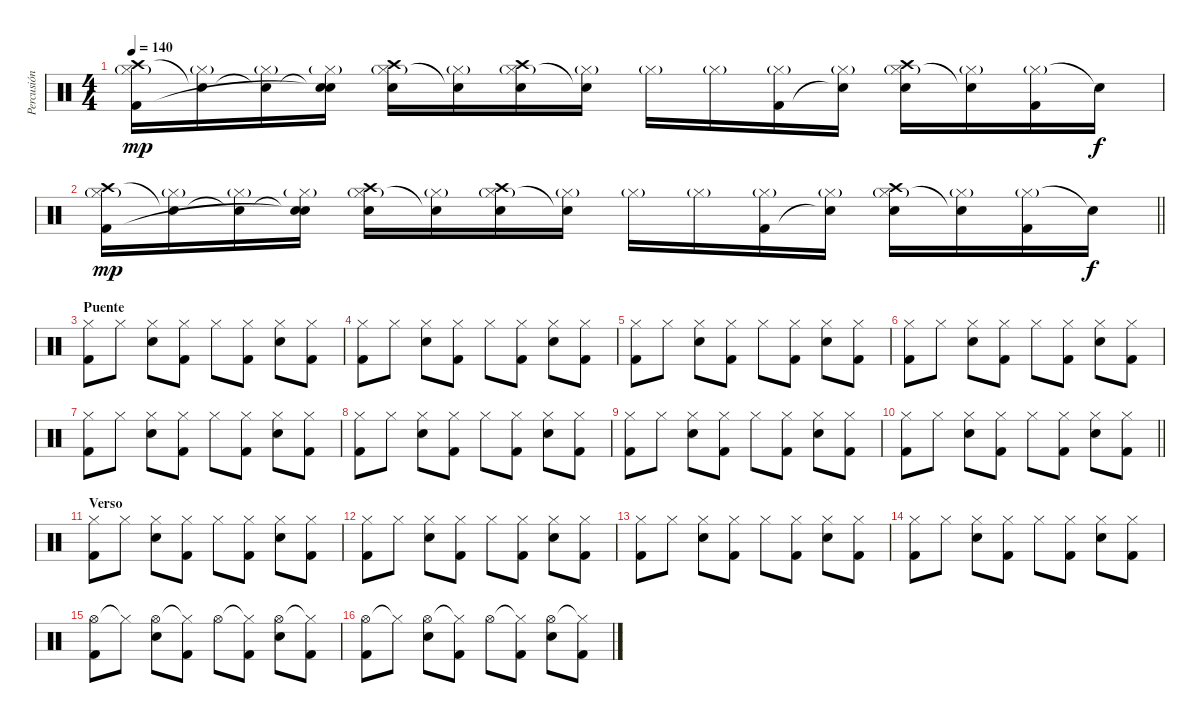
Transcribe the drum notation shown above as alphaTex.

\track ("Percusión" "Percusión") {instrument percussion}
\staff {score}
\articulation defaults
\ts (4 4)
\tempo 140
\clef neutral
\ks c
("Crash high (hit)" "Hi-Hat (closed)"{g} "Kick (hit) 2").16{dy mp} ("Snare (hit)"{t} "Hi-Hat (closed)"{g}).16 ("Snare (hit)"{t} "Hi-Hat (closed)"{g}).16 ("Snare (hit)"{t} "Hi-Hat (closed)"{g} "Snare (hit)"{t}).16 ("Crash high (hit)" "Hi-Hat (closed)"{g} "Electric Snare (hit)").16 ("Hi-Hat (closed)"{g} "Snare (hit)"{t}).16 ("Crash high (hit)" "Hi-Hat (closed)"{g} "Electric Snare (hit)").16 ("Hi-Hat (closed)"{g} "Snare (hit)"{t}).16 "Hi-Hat (closed)"{g}.16 "Hi-Hat (closed)"{g}.16 ("Hi-Hat (closed)"{g} "Kick (hit) 2").16 ("Hi-Hat (closed)"{g} "Snare (hit)"{t}).16 ("Crash high (hit)" "Hi-Hat (closed)"{g} "Electric Snare (hit)").16 ("Hi-Hat (closed)"{g} "Snare (hit)"{t}).16 ("Hi-Hat (closed)"{g} "Kick (hit) 2").16 "Snare (hit)"{t}.16{dy f} |
\barLineRight lightlight
("Crash high (hit)" "Hi-Hat (closed)"{g} "Kick (hit) 2").16{dy mp} ("Snare (hit)"{t} "Hi-Hat (closed)"{g}).16 ("Snare (hit)"{t} "Hi-Hat (closed)"{g}).16 ("Snare (hit)"{t} "Hi-Hat (closed)"{g} "Snare (hit)"{t}).16 ("Crash high (hit)" "Hi-Hat (closed)"{g} "Electric Snare (hit)").16 ("Hi-Hat (closed)"{g} "Snare (hit)"{t}).16 ("Crash high (hit)" "Hi-Hat (closed)"{g} "Electric Snare (hit)").16 ("Hi-Hat (closed)"{g} "Snare (hit)"{t}).16 "Hi-Hat (closed)"{g}.16 "Hi-Hat (closed)"{g}.16 ("Hi-Hat (closed)"{g} "Kick (hit) 2").16 ("Hi-Hat (closed)"{g} "Snare (hit)"{t}).16 ("Crash high (hit)" "Hi-Hat (closed)"{g} "Electric Snare (hit)").16 ("Hi-Hat (closed)"{g} "Snare (hit)"{t}).16 ("Hi-Hat (closed)"{g} "Kick (hit) 2").16 "Snare (hit)"{t}.16{dy f} |
\section ("" "Puente")
("Hi-Hat (closed)" "Kick (hit) 2").8 "Hi-Hat (closed)".8 ("Hi-Hat (closed)" "Electric Snare (hit)").8 ("Hi-Hat (closed)" "Kick (hit) 2").8 "Hi-Hat (closed)".8 ("Hi-Hat (closed)" "Kick (hit) 2").8 ("Hi-Hat (closed)" "Electric Snare (hit)").8 ("Hi-Hat (closed)" "Kick (hit) 2").8 |
("Hi-Hat (closed)" "Kick (hit) 2").8 "Hi-Hat (closed)".8 ("Hi-Hat (closed)" "Electric Snare (hit)").8 ("Hi-Hat (closed)" "Kick (hit) 2").8 "Hi-Hat (closed)".8 ("Hi-Hat (closed)" "Kick (hit) 2").8 ("Hi-Hat (closed)" "Electric Snare (hit)").8 ("Hi-Hat (closed)" "Kick (hit) 2").8 |
("Hi-Hat (closed)" "Kick (hit) 2").8 "Hi-Hat (closed)".8 ("Hi-Hat (closed)" "Electric Snare (hit)").8 ("Hi-Hat (closed)" "Kick (hit) 2").8 "Hi-Hat (closed)".8 ("Hi-Hat (closed)" "Kick (hit) 2").8 ("Hi-Hat (closed)" "Electric Snare (hit)").8 ("Hi-Hat (closed)" "Kick (hit) 2").8 |
("Hi-Hat (closed)" "Kick (hit) 2").8 "Hi-Hat (closed)".8 ("Hi-Hat (closed)" "Electric Snare (hit)").8 ("Hi-Hat (closed)" "Kick (hit) 2").8 "Hi-Hat (closed)".8 ("Hi-Hat (closed)" "Kick (hit) 2").8 ("Hi-Hat (closed)" "Electric Snare (hit)").8 ("Hi-Hat (closed)" "Kick (hit) 2").8 |
("Hi-Hat (closed)" "Kick (hit) 2").8 "Hi-Hat (closed)".8 ("Hi-Hat (closed)" "Electric Snare (hit)").8 ("Hi-Hat (closed)" "Kick (hit) 2").8 "Hi-Hat (closed)".8 ("Hi-Hat (closed)" "Kick (hit) 2").8 ("Hi-Hat (closed)" "Electric Snare (hit)").8 ("Hi-Hat (closed)" "Kick (hit) 2").8 |
("Hi-Hat (closed)" "Kick (hit) 2").8 "Hi-Hat (closed)".8 ("Hi-Hat (closed)" "Electric Snare (hit)").8 ("Hi-Hat (closed)" "Kick (hit) 2").8 "Hi-Hat (closed)".8 ("Hi-Hat (closed)" "Kick (hit) 2").8 ("Hi-Hat (closed)" "Electric Snare (hit)").8 ("Hi-Hat (closed)" "Kick (hit) 2").8 |
("Hi-Hat (closed)" "Kick (hit) 2").8 "Hi-Hat (closed)".8 ("Hi-Hat (closed)" "Electric Snare (hit)").8 ("Hi-Hat (closed)" "Kick (hit) 2").8 "Hi-Hat (closed)".8 ("Hi-Hat (closed)" "Kick (hit) 2").8 ("Hi-Hat (closed)" "Electric Snare (hit)").8 ("Hi-Hat (closed)" "Kick (hit) 2").8 |
\barLineRight lightlight
("Hi-Hat (closed)" "Kick (hit) 2").8 "Hi-Hat (closed)".8 ("Hi-Hat (closed)" "Electric Snare (hit)").8 ("Hi-Hat (closed)" "Kick (hit) 2").8 "Hi-Hat (closed)".8 ("Hi-Hat (closed)" "Kick (hit) 2").8 ("Hi-Hat (closed)" "Electric Snare (hit)").8 ("Hi-Hat (closed)" "Kick (hit) 2").8 |
\section ("" "Verso")
("Hi-Hat (closed)" "Kick (hit) 2").8 "Hi-Hat (closed)".8 ("Hi-Hat (closed)" "Electric Snare (hit)").8 ("Hi-Hat (closed)" "Kick (hit) 2").8 "Hi-Hat (closed)".8 ("Hi-Hat (closed)" "Kick (hit) 2").8 ("Hi-Hat (closed)" "Electric Snare (hit)").8 ("Hi-Hat (closed)" "Kick (hit) 2").8 |
("Hi-Hat (closed)" "Kick (hit) 2").8 "Hi-Hat (closed)".8 ("Hi-Hat (closed)" "Electric Snare (hit)").8 ("Hi-Hat (closed)" "Kick (hit) 2").8 "Hi-Hat (closed)".8 ("Hi-Hat (closed)" "Kick (hit) 2").8 ("Hi-Hat (closed)" "Electric Snare (hit)").8 ("Hi-Hat (closed)" "Kick (hit) 2").8 |
("Hi-Hat (closed)" "Kick (hit) 2").8 "Hi-Hat (closed)".8 ("Hi-Hat (closed)" "Electric Snare (hit)").8 ("Hi-Hat (closed)" "Kick (hit) 2").8 "Hi-Hat (closed)".8 ("Hi-Hat (closed)" "Kick (hit) 2").8 ("Hi-Hat (closed)" "Electric Snare (hit)").8 ("Hi-Hat (closed)" "Kick (hit) 2").8 |
("Hi-Hat (closed)" "Kick (hit) 2").8 "Hi-Hat (closed)".8 ("Hi-Hat (closed)" "Electric Snare (hit)").8 ("Hi-Hat (closed)" "Kick (hit) 2").8 "Hi-Hat (closed)".8 ("Hi-Hat (closed)" "Kick (hit) 2").8 ("Hi-Hat (closed)" "Electric Snare (hit)").8 ("Hi-Hat (closed)" "Kick (hit) 2").8 |
("Hi-Hat (open)" "Kick (hit) 2").8 "Hi-Hat (closed)"{t}.8 ("Hi-Hat (open)" "Electric Snare (hit)").8 ("Hi-Hat (closed)"{t} "Kick (hit) 2").8 "Hi-Hat (open)".8 ("Hi-Hat (closed)"{t} "Kick (hit) 2").8 ("Hi-Hat (open)" "Electric Snare (hit)").8 ("Hi-Hat (closed)"{t} "Kick (hit) 2").8 |
("Hi-Hat (open)" "Kick (hit) 2").8 "Hi-Hat (closed)"{t}.8 ("Hi-Hat (open)" "Electric Snare (hit)").8 ("Hi-Hat (closed)"{t} "Kick (hit) 2").8 "Hi-Hat (open)".8 ("Hi-Hat (closed)"{t} "Kick (hit) 2").8 ("Hi-Hat (open)" "Electric Snare (hit)").8 ("Hi-Hat (closed)"{t} "Kick (hit) 2").8
